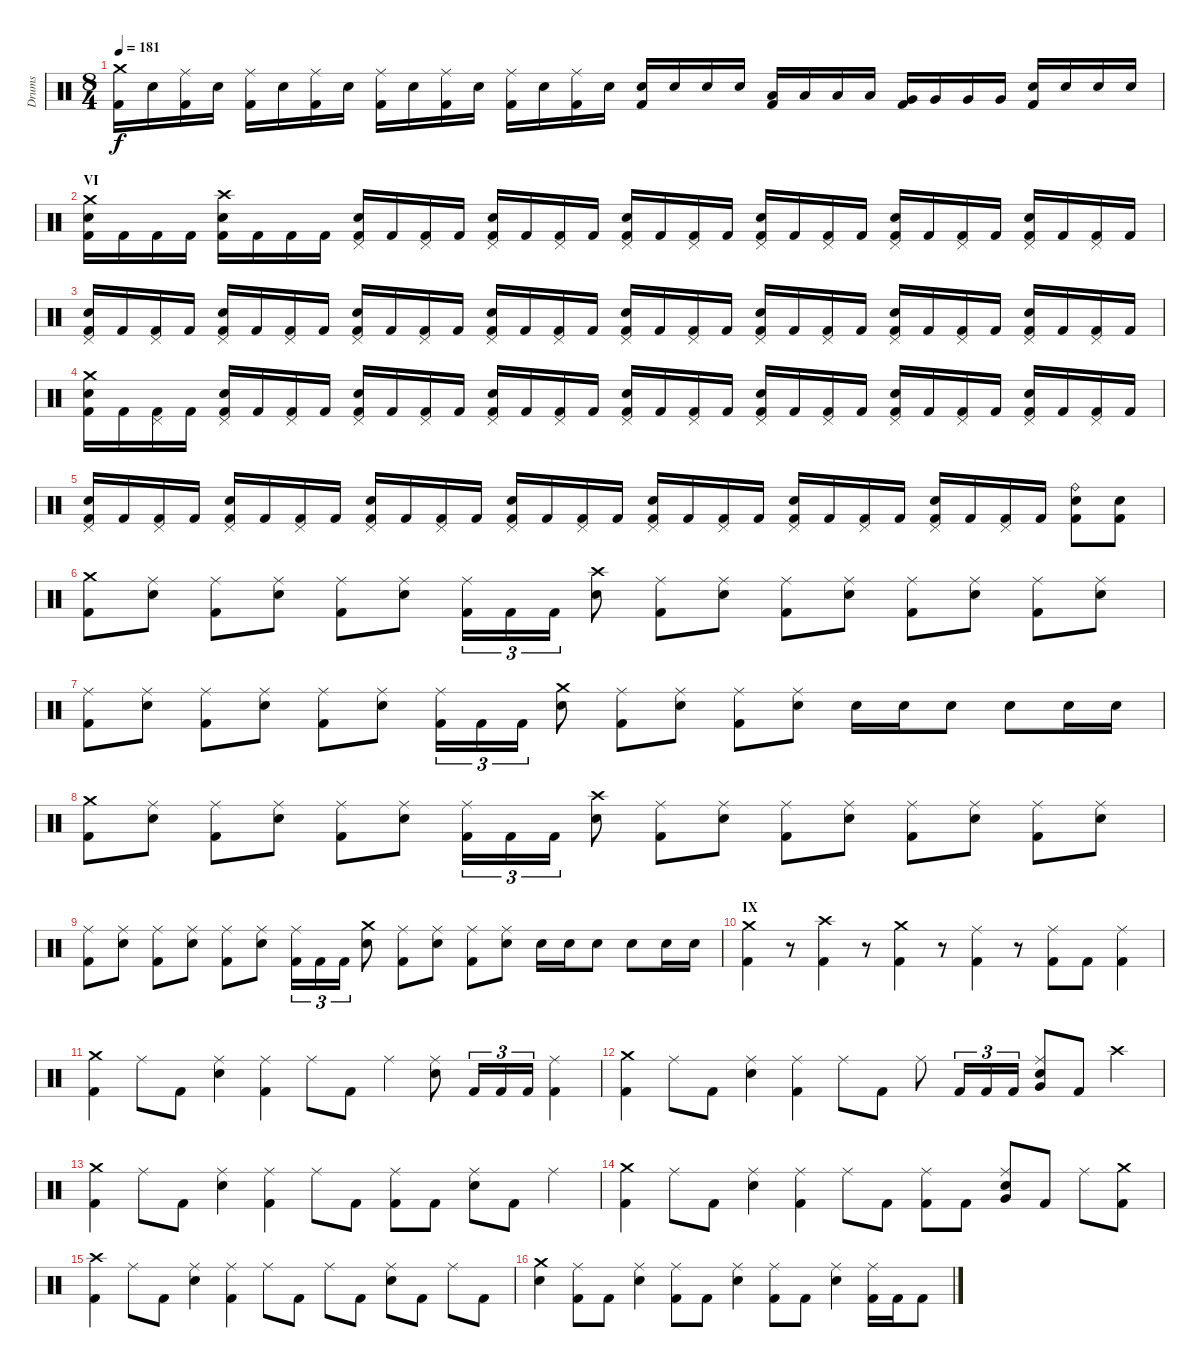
\track ("Drums" "Drums") {instrument percussion}
\staff {score}
\articulation defaults
\ts (8 4)
\tempo 181
\clef neutral
\ks c
("Crash medium (hit)" "Kick (hit) 2").16{dy f} "Electric Snare (hit)".16 ("Ride (middle)" "Kick (hit) 2").16 "Electric Snare (hit)".16 ("Ride (middle)" "Kick (hit) 2").16 "Electric Snare (hit)".16 ("Ride (middle)" "Kick (hit) 2").16 "Electric Snare (hit)".16 ("Ride (middle)" "Kick (hit) 2").16 "Electric Snare (hit)".16 ("Ride (middle)" "Kick (hit) 2").16 "Electric Snare (hit)".16 ("Ride (middle)" "Kick (hit) 2").16 "Electric Snare (hit)".16 ("Ride (middle)" "Kick (hit) 2").16 "Electric Snare (hit)".16 ("Electric Snare (hit)" "Kick (hit) 2").16 "Electric Snare (hit)".16 "Electric Snare (hit)".16 "Electric Snare (hit)".16 ("Low Tom (hit)" "Kick (hit) 2").16 "Low Tom (hit)".16 "Low Tom (hit)".16 "Low Tom (hit)".16 ("Very Low Tom (hit)" "Kick (hit) 2").16 "Very Low Tom (hit)".16 "Very Low Tom (hit)".16 "Very Low Tom (hit)".16 ("Electric Snare (hit)" "Kick (hit) 2").16 "Electric Snare (hit)".16 "Electric Snare (hit)".16 "Electric Snare (hit)".16 |
\section ("" "VI")
("Crash medium (hit)" "Electric Snare (hit)" "Kick (hit) 2").16 "Kick (hit) 2".16 "Kick (hit) 2".16 "Kick (hit) 2".16 ("Crash high (hit)" "Electric Snare (hit)" "Kick (hit) 2").16 "Kick (hit) 2".16 "Kick (hit) 2".16 "Kick (hit) 2".16 ("Pedal Hi-Hat (hit)" "Electric Snare (hit)" "Kick (hit) 2").16 "Kick (hit) 2".16 ("Pedal Hi-Hat (hit)" "Kick (hit) 2").16 "Kick (hit) 2".16 ("Pedal Hi-Hat (hit)" "Electric Snare (hit)" "Kick (hit) 2").16 "Kick (hit) 2".16 ("Pedal Hi-Hat (hit)" "Kick (hit) 2").16 "Kick (hit) 2".16 ("Pedal Hi-Hat (hit)" "Electric Snare (hit)" "Kick (hit) 2").16 "Kick (hit) 2".16 ("Pedal Hi-Hat (hit)" "Kick (hit) 2").16 "Kick (hit) 2".16 ("Pedal Hi-Hat (hit)" "Electric Snare (hit)" "Kick (hit) 2").16 "Kick (hit) 2".16 ("Pedal Hi-Hat (hit)" "Kick (hit) 2").16 "Kick (hit) 2".16 ("Pedal Hi-Hat (hit)" "Electric Snare (hit)" "Kick (hit) 2").16 "Kick (hit) 2".16 ("Pedal Hi-Hat (hit)" "Kick (hit) 2").16 "Kick (hit) 2".16 ("Pedal Hi-Hat (hit)" "Electric Snare (hit)" "Kick (hit) 2").16 "Kick (hit) 2".16 ("Pedal Hi-Hat (hit)" "Kick (hit) 2").16 "Kick (hit) 2".16 |
("Pedal Hi-Hat (hit)" "Electric Snare (hit)" "Kick (hit) 2").16 "Kick (hit) 2".16 ("Pedal Hi-Hat (hit)" "Kick (hit) 2").16 "Kick (hit) 2".16 ("Pedal Hi-Hat (hit)" "Electric Snare (hit)" "Kick (hit) 2").16 "Kick (hit) 2".16 ("Pedal Hi-Hat (hit)" "Kick (hit) 2").16 "Kick (hit) 2".16 ("Pedal Hi-Hat (hit)" "Electric Snare (hit)" "Kick (hit) 2").16 "Kick (hit) 2".16 ("Pedal Hi-Hat (hit)" "Kick (hit) 2").16 "Kick (hit) 2".16 ("Pedal Hi-Hat (hit)" "Electric Snare (hit)" "Kick (hit) 2").16 "Kick (hit) 2".16 ("Pedal Hi-Hat (hit)" "Kick (hit) 2").16 "Kick (hit) 2".16 ("Pedal Hi-Hat (hit)" "Electric Snare (hit)" "Kick (hit) 2").16 "Kick (hit) 2".16 ("Pedal Hi-Hat (hit)" "Kick (hit) 2").16 "Kick (hit) 2".16 ("Pedal Hi-Hat (hit)" "Electric Snare (hit)" "Kick (hit) 2").16 "Kick (hit) 2".16 ("Pedal Hi-Hat (hit)" "Kick (hit) 2").16 "Kick (hit) 2".16 ("Pedal Hi-Hat (hit)" "Electric Snare (hit)" "Kick (hit) 2").16 "Kick (hit) 2".16 ("Pedal Hi-Hat (hit)" "Kick (hit) 2").16 "Kick (hit) 2".16 ("Pedal Hi-Hat (hit)" "Electric Snare (hit)" "Kick (hit) 2").16 "Kick (hit) 2".16 ("Pedal Hi-Hat (hit)" "Kick (hit) 2").16 "Kick (hit) 2".16 |
("Crash medium (hit)" "Electric Snare (hit)" "Kick (hit) 2").16 "Kick (hit) 2".16 ("Pedal Hi-Hat (hit)" "Kick (hit) 2").16 "Kick (hit) 2".16 ("Pedal Hi-Hat (hit)" "Electric Snare (hit)" "Kick (hit) 2").16 "Kick (hit) 2".16 ("Pedal Hi-Hat (hit)" "Kick (hit) 2").16 "Kick (hit) 2".16 ("Pedal Hi-Hat (hit)" "Electric Snare (hit)" "Kick (hit) 2").16 "Kick (hit) 2".16 ("Pedal Hi-Hat (hit)" "Kick (hit) 2").16 "Kick (hit) 2".16 ("Pedal Hi-Hat (hit)" "Electric Snare (hit)" "Kick (hit) 2").16 "Kick (hit) 2".16 ("Pedal Hi-Hat (hit)" "Kick (hit) 2").16 "Kick (hit) 2".16 ("Pedal Hi-Hat (hit)" "Electric Snare (hit)" "Kick (hit) 2").16 "Kick (hit) 2".16 ("Pedal Hi-Hat (hit)" "Kick (hit) 2").16 "Kick (hit) 2".16 ("Pedal Hi-Hat (hit)" "Electric Snare (hit)" "Kick (hit) 2").16 "Kick (hit) 2".16 ("Pedal Hi-Hat (hit)" "Kick (hit) 2").16 "Kick (hit) 2".16 ("Pedal Hi-Hat (hit)" "Electric Snare (hit)" "Kick (hit) 2").16 "Kick (hit) 2".16 ("Pedal Hi-Hat (hit)" "Kick (hit) 2").16 "Kick (hit) 2".16 ("Pedal Hi-Hat (hit)" "Electric Snare (hit)" "Kick (hit) 2").16 "Kick (hit) 2".16 ("Pedal Hi-Hat (hit)" "Kick (hit) 2").16 "Kick (hit) 2".16 |
("Pedal Hi-Hat (hit)" "Electric Snare (hit)" "Kick (hit) 2").16 "Kick (hit) 2".16 ("Pedal Hi-Hat (hit)" "Kick (hit) 2").16 "Kick (hit) 2".16 ("Pedal Hi-Hat (hit)" "Electric Snare (hit)" "Kick (hit) 2").16 "Kick (hit) 2".16 ("Pedal Hi-Hat (hit)" "Kick (hit) 2").16 "Kick (hit) 2".16 ("Pedal Hi-Hat (hit)" "Electric Snare (hit)" "Kick (hit) 2").16 "Kick (hit) 2".16 ("Pedal Hi-Hat (hit)" "Kick (hit) 2").16 "Kick (hit) 2".16 ("Pedal Hi-Hat (hit)" "Electric Snare (hit)" "Kick (hit) 2").16 "Kick (hit) 2".16 ("Pedal Hi-Hat (hit)" "Kick (hit) 2").16 "Kick (hit) 2".16 ("Pedal Hi-Hat (hit)" "Electric Snare (hit)" "Kick (hit) 2").16 "Kick (hit) 2".16 ("Pedal Hi-Hat (hit)" "Kick (hit) 2").16 "Kick (hit) 2".16 ("Pedal Hi-Hat (hit)" "Electric Snare (hit)" "Kick (hit) 2").16 "Kick (hit) 2".16 ("Pedal Hi-Hat (hit)" "Kick (hit) 2").16 "Kick (hit) 2".16 ("Pedal Hi-Hat (hit)" "Electric Snare (hit)" "Kick (hit) 2").16 "Kick (hit) 2".16 ("Pedal Hi-Hat (hit)" "Kick (hit) 2").16 "Kick (hit) 2".16 ("Ride (bell)" "Electric Snare (hit)" "Kick (hit) 2").8 ("Electric Snare (hit)" "Kick (hit) 2").8 |
("Crash medium (hit)" "Kick (hit) 2").8 ("Ride (middle)" "Electric Snare (hit)").8 ("Ride (middle)" "Kick (hit) 2").8 ("Ride (middle)" "Electric Snare (hit)").8 ("Ride (middle)" "Kick (hit) 2").8 ("Ride (middle)" "Electric Snare (hit)").8 ("Ride (middle)" "Kick (hit) 2").16{tu (3 2)} "Kick (hit) 2".16{tu (3 2)} "Kick (hit) 2".16{tu (3 2)} ("Crash high (hit)" "Electric Snare (hit)").8 ("Ride (middle)" "Kick (hit) 2").8 ("Ride (middle)" "Electric Snare (hit)").8 ("Ride (middle)" "Kick (hit) 2").8 ("Ride (middle)" "Electric Snare (hit)").8 ("Ride (middle)" "Kick (hit) 2").8 ("Ride (middle)" "Electric Snare (hit)").8 ("Ride (middle)" "Kick (hit) 2").8 ("Ride (middle)" "Electric Snare (hit)").8 |
("Ride (middle)" "Kick (hit) 2").8 ("Ride (middle)" "Electric Snare (hit)").8 ("Ride (middle)" "Kick (hit) 2").8 ("Ride (middle)" "Electric Snare (hit)").8 ("Ride (middle)" "Kick (hit) 2").8 ("Ride (middle)" "Electric Snare (hit)").8 ("Ride (middle)" "Kick (hit) 2").16{tu (3 2)} "Kick (hit) 2".16{tu (3 2)} "Kick (hit) 2".16{tu (3 2)} ("Crash medium (hit)" "Electric Snare (hit)").8 ("Ride (middle)" "Kick (hit) 2").8 ("Ride (middle)" "Electric Snare (hit)").8 ("Ride (middle)" "Kick (hit) 2").8 ("Ride (middle)" "Electric Snare (hit)").8 "Electric Snare (hit)".16 "Electric Snare (hit)".16 "Electric Snare (hit)".8 "Electric Snare (hit)".8 "Electric Snare (hit)".16 "Electric Snare (hit)".16 |
("Crash medium (hit)" "Kick (hit) 2").8 ("Ride (middle)" "Electric Snare (hit)").8 ("Ride (middle)" "Kick (hit) 2").8 ("Ride (middle)" "Electric Snare (hit)").8 ("Ride (middle)" "Kick (hit) 2").8 ("Ride (middle)" "Electric Snare (hit)").8 ("Ride (middle)" "Kick (hit) 2").16{tu (3 2)} "Kick (hit) 2".16{tu (3 2)} "Kick (hit) 2".16{tu (3 2)} ("Crash high (hit)" "Electric Snare (hit)").8 ("Ride (middle)" "Kick (hit) 2").8 ("Ride (middle)" "Electric Snare (hit)").8 ("Ride (middle)" "Kick (hit) 2").8 ("Ride (middle)" "Electric Snare (hit)").8 ("Ride (middle)" "Kick (hit) 2").8 ("Ride (middle)" "Electric Snare (hit)").8 ("Ride (middle)" "Kick (hit) 2").8 ("Ride (middle)" "Electric Snare (hit)").8 |
("Ride (middle)" "Kick (hit) 2").8 ("Ride (middle)" "Electric Snare (hit)").8 ("Ride (middle)" "Kick (hit) 2").8 ("Ride (middle)" "Electric Snare (hit)").8 ("Ride (middle)" "Kick (hit) 2").8 ("Ride (middle)" "Electric Snare (hit)").8 ("Ride (middle)" "Kick (hit) 2").16{tu (3 2)} "Kick (hit) 2".16{tu (3 2)} "Kick (hit) 2".16{tu (3 2)} ("Crash medium (hit)" "Electric Snare (hit)").8 ("Ride (middle)" "Kick (hit) 2").8 ("Ride (middle)" "Electric Snare (hit)").8 ("Ride (middle)" "Kick (hit) 2").8 ("Ride (middle)" "Electric Snare (hit)").8 "Electric Snare (hit)".16 "Electric Snare (hit)".16 "Electric Snare (hit)".8 "Electric Snare (hit)".8 "Electric Snare (hit)".16 "Electric Snare (hit)".16 |
\section ("" "IX")
("Crash medium (hit)" "Kick (hit) 2").4 r.8 ("Crash high (hit)" "Kick (hit) 2").4 r.8 ("Crash medium (hit)" "Kick (hit) 2").4 r.8 ("Ride (middle)" "Kick (hit) 2").4 r.8 ("Ride (middle)" "Kick (hit) 2").8 "Kick (hit) 2".8 ("Ride (middle)" "Kick (hit) 2").4 |
("Crash medium (hit)" "Kick (hit) 2").4 "Ride (middle)".8 "Kick (hit) 2".8 ("Ride (middle)" "Electric Snare (hit)").4 ("Ride (middle)" "Kick (hit) 2").4 "Ride (middle)".8 "Kick (hit) 2".8 "Ride (middle)".4 ("Ride (middle)" "Electric Snare (hit)").8 "Kick (hit) 2".16{tu (3 2)} "Kick (hit) 2".16{tu (3 2)} "Kick (hit) 2".16{tu (3 2)} ("Ride (middle)" "Kick (hit) 2").4 |
("Crash medium (hit)" "Kick (hit) 2").4 "Ride (middle)".8 "Kick (hit) 2".8 ("Ride (middle)" "Electric Snare (hit)").4 ("Ride (middle)" "Kick (hit) 2").4 "Ride (middle)".8 "Kick (hit) 2".8 "Ride (middle)".8 "Kick (hit) 2".16{tu (3 2)} "Kick (hit) 2".16{tu (3 2)} "Kick (hit) 2".16{tu (3 2)} ("Ride (middle)" "Very Low Tom (hit)" "Electric Snare (hit)").8 "Kick (hit) 2".8 "Crash high (hit)".4 |
("Crash medium (hit)" "Kick (hit) 2").4 "Ride (middle)".8 "Kick (hit) 2".8 ("Ride (middle)" "Electric Snare (hit)").4 ("Ride (middle)" "Kick (hit) 2").4 "Ride (middle)".8 "Kick (hit) 2".8 ("Ride (middle)" "Kick (hit) 2").8 "Kick (hit) 2".8 ("Ride (middle)" "Electric Snare (hit)").8 "Kick (hit) 2".8 "Ride (middle)".4 |
("Crash medium (hit)" "Kick (hit) 2").4 "Ride (middle)".8 "Kick (hit) 2".8 ("Ride (middle)" "Electric Snare (hit)").4 ("Ride (middle)" "Kick (hit) 2").4 "Ride (middle)".8 "Kick (hit) 2".8 ("Ride (middle)" "Kick (hit) 2").8 "Kick (hit) 2".8 ("Ride (middle)" "Very Low Tom (hit)" "Electric Snare (hit)").8 "Kick (hit) 2".8 "Ride (middle)".8 ("Crash medium (hit)" "Kick (hit) 2").8 |
("Crash high (hit)" "Kick (hit) 2").4 "Ride (middle)".8 "Kick (hit) 2".8 ("Ride (middle)" "Electric Snare (hit)").4 ("Ride (middle)" "Kick (hit) 2").4 "Ride (middle)".8 "Kick (hit) 2".8 "Ride (middle)".8 "Kick (hit) 2".8 ("Ride (middle)" "Electric Snare (hit)").8 "Kick (hit) 2".8 "Ride (middle)".8 "Kick (hit) 2".8 |
("Crash medium (hit)" "Electric Snare (hit)").4 ("Ride (middle)" "Kick (hit) 2").8 "Kick (hit) 2".8 ("Ride (middle)" "Electric Snare (hit)").4 ("Ride (middle)" "Kick (hit) 2").8 "Kick (hit) 2".8 ("Ride (middle)" "Electric Snare (hit)").4 ("Ride (middle)" "Kick (hit) 2").8 "Kick (hit) 2".8 ("Ride (middle)" "Electric Snare (hit)").4 ("Ride (middle)" "Kick (hit) 2").16 "Kick (hit) 2".16 "Kick (hit) 2".8
